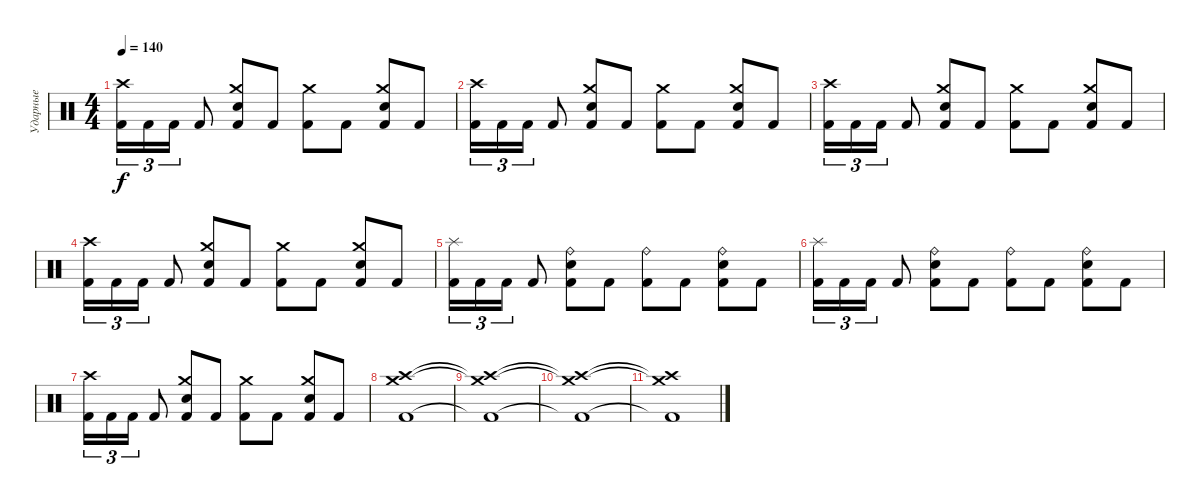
\track ("Ударные" "Ударные") {instrument percussion}
\staff {score}
\articulation defaults
\ts (4 4)
\tempo 140
\clef neutral
\ks c
("Crash high (hit)" "Kick (hit) 2").16{tu (3 2) dy f} "Kick (hit) 2".16{tu (3 2)} "Kick (hit) 2".16{tu (3 2)} "Kick (hit) 2".8 ("Crash medium (hit)" "Electric Snare (hit)" "Kick (hit) 2").8 "Kick (hit) 2".8 ("Crash medium (hit)" "Kick (hit) 2").8 "Kick (hit) 2".8 ("Crash medium (hit)" "Electric Snare (hit)" "Kick (hit) 2").8 "Kick (hit) 2".8 |
("Crash high (hit)" "Kick (hit) 2").16{tu (3 2)} "Kick (hit) 2".16{tu (3 2)} "Kick (hit) 2".16{tu (3 2)} "Kick (hit) 2".8 ("Crash medium (hit)" "Electric Snare (hit)" "Kick (hit) 2").8 "Kick (hit) 2".8 ("Crash medium (hit)" "Kick (hit) 2").8 "Kick (hit) 2".8 ("Crash medium (hit)" "Electric Snare (hit)" "Kick (hit) 2").8 "Kick (hit) 2".8 |
("Crash high (hit)" "Kick (hit) 2").16{tu (3 2)} "Kick (hit) 2".16{tu (3 2)} "Kick (hit) 2".16{tu (3 2)} "Kick (hit) 2".8 ("Crash medium (hit)" "Electric Snare (hit)" "Kick (hit) 2").8 "Kick (hit) 2".8 ("Crash medium (hit)" "Kick (hit) 2").8 "Kick (hit) 2".8 ("Crash medium (hit)" "Electric Snare (hit)" "Kick (hit) 2").8 "Kick (hit) 2".8 |
("Crash high (hit)" "Kick (hit) 2").16{tu (3 2)} "Kick (hit) 2".16{tu (3 2)} "Kick (hit) 2".16{tu (3 2)} "Kick (hit) 2".8 ("Crash medium (hit)" "Electric Snare (hit)" "Kick (hit) 2").8 "Kick (hit) 2".8 ("Crash medium (hit)" "Kick (hit) 2").8 "Kick (hit) 2".8 ("Crash medium (hit)" "Electric Snare (hit)" "Kick (hit) 2").8 "Kick (hit) 2".8 |
("Splash (hit)" "Kick (hit) 2").16{tu (3 2)} "Kick (hit) 2".16{tu (3 2)} "Kick (hit) 2".16{tu (3 2)} "Kick (hit) 2".8 ("Ride (bell)" "Electric Snare (hit)" "Kick (hit) 2").8 "Kick (hit) 2".8 ("Ride (bell)" "Kick (hit) 2").8 "Kick (hit) 2".8 ("Ride (bell)" "Electric Snare (hit)" "Kick (hit) 2").8 "Kick (hit) 2".8 |
("Splash (hit)" "Kick (hit) 2").16{tu (3 2)} "Kick (hit) 2".16{tu (3 2)} "Kick (hit) 2".16{tu (3 2)} "Kick (hit) 2".8 ("Ride (bell)" "Electric Snare (hit)" "Kick (hit) 2").8 "Kick (hit) 2".8 ("Ride (bell)" "Kick (hit) 2").8 "Kick (hit) 2".8 ("Ride (bell)" "Electric Snare (hit)" "Kick (hit) 2").8 "Kick (hit) 2".8 |
("Crash high (hit)" "Kick (hit) 2").16{tu (3 2)} "Kick (hit) 2".16{tu (3 2)} "Kick (hit) 2".16{tu (3 2)} "Kick (hit) 2".8 ("Crash medium (hit)" "Electric Snare (hit)" "Kick (hit) 2").8 "Kick (hit) 2".8 ("Crash medium (hit)" "Kick (hit) 2").8 "Kick (hit) 2".8 ("Crash medium (hit)" "Electric Snare (hit)" "Kick (hit) 2").8 "Kick (hit) 2".8 |
("Crash high (hit)" "Crash medium (hit)" "Kick (hit) 2").1 |
("Crash high (hit)"{t} "Crash medium (hit)"{t} "Kick (hit) 2"{t}).1 |
("Crash high (hit)"{t} "Crash medium (hit)"{t} "Kick (hit) 2"{t}).1 |
("Crash high (hit)"{t} "Crash medium (hit)"{t} "Kick (hit) 2"{t}).1
